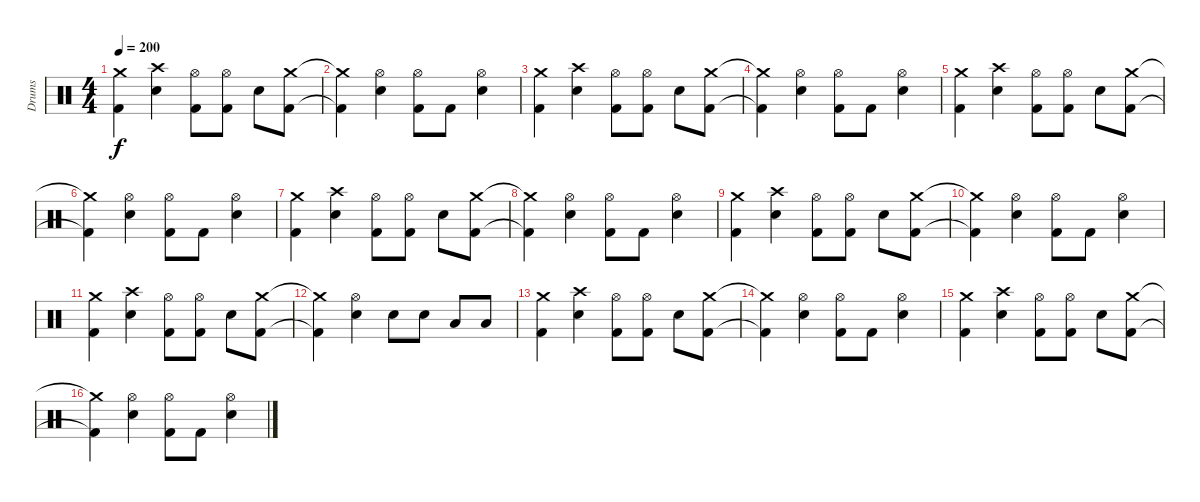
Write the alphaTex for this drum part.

\track ("Drums" "Drums") {instrument percussion}
\staff {score}
\articulation defaults
\ts (4 4)
\tempo 200
\clef neutral
\ks c
("Crash medium (hit)" "Kick (hit) 2").4{dy f} ("Crash high (hit)" "Electric Snare (hit)").4 ("Kick (hit) 2" "Hi-Hat (open)").8 ("Kick (hit) 2" "Hi-Hat (open)").8 "Electric Snare (hit)".8 ("Crash medium (hit)" "Kick (hit) 2").8 |
("Crash medium (hit)"{t} "Kick (hit) 2"{t}).4 ("Hi-Hat (open)" "Electric Snare (hit)").4 ("Kick (hit) 2" "Hi-Hat (open)").8 "Kick (hit) 2".8 ("Electric Snare (hit)" "Hi-Hat (open)").4 |
("Crash medium (hit)" "Kick (hit) 2").4 ("Crash high (hit)" "Electric Snare (hit)").4 ("Kick (hit) 2" "Hi-Hat (open)").8 ("Kick (hit) 2" "Hi-Hat (open)").8 "Electric Snare (hit)".8 ("Crash medium (hit)" "Kick (hit) 2").8 |
("Crash medium (hit)"{t} "Kick (hit) 2"{t}).4 ("Hi-Hat (open)" "Electric Snare (hit)").4 ("Kick (hit) 2" "Hi-Hat (open)").8 "Kick (hit) 2".8 ("Electric Snare (hit)" "Hi-Hat (open)").4 |
("Crash medium (hit)" "Kick (hit) 2").4 ("Crash high (hit)" "Electric Snare (hit)").4 ("Kick (hit) 2" "Hi-Hat (open)").8 ("Kick (hit) 2" "Hi-Hat (open)").8 "Electric Snare (hit)".8 ("Crash medium (hit)" "Kick (hit) 2").8 |
("Crash medium (hit)"{t} "Kick (hit) 2"{t}).4 ("Hi-Hat (open)" "Electric Snare (hit)").4 ("Kick (hit) 2" "Hi-Hat (open)").8 "Kick (hit) 2".8 ("Electric Snare (hit)" "Hi-Hat (open)").4 |
("Crash medium (hit)" "Kick (hit) 2").4 ("Crash high (hit)" "Electric Snare (hit)").4 ("Kick (hit) 2" "Hi-Hat (open)").8 ("Kick (hit) 2" "Hi-Hat (open)").8 "Electric Snare (hit)".8 ("Crash medium (hit)" "Kick (hit) 2").8 |
("Crash medium (hit)"{t} "Kick (hit) 2"{t}).4 ("Hi-Hat (open)" "Electric Snare (hit)").4 ("Kick (hit) 2" "Hi-Hat (open)").8 "Kick (hit) 2".8 ("Electric Snare (hit)" "Hi-Hat (open)").4 |
("Crash medium (hit)" "Kick (hit) 2").4 ("Crash high (hit)" "Electric Snare (hit)").4 ("Kick (hit) 2" "Hi-Hat (open)").8 ("Kick (hit) 2" "Hi-Hat (open)").8 "Electric Snare (hit)".8 ("Crash medium (hit)" "Kick (hit) 2").8 |
("Crash medium (hit)"{t} "Kick (hit) 2"{t}).4 ("Hi-Hat (open)" "Electric Snare (hit)").4 ("Kick (hit) 2" "Hi-Hat (open)").8 "Kick (hit) 2".8 ("Electric Snare (hit)" "Hi-Hat (open)").4 |
("Crash medium (hit)" "Kick (hit) 2").4 ("Crash high (hit)" "Electric Snare (hit)").4 ("Kick (hit) 2" "Hi-Hat (open)").8 ("Kick (hit) 2" "Hi-Hat (open)").8 "Electric Snare (hit)".8 ("Crash medium (hit)" "Kick (hit) 2").8 |
("Crash medium (hit)"{t} "Kick (hit) 2"{t}).4 ("Hi-Hat (open)" "Electric Snare (hit)").4 "Electric Snare (hit)".8 "Electric Snare (hit)".8 "Low Tom (hit)".8 "Low Tom (hit)".8 |
("Crash medium (hit)" "Kick (hit) 2").4 ("Crash high (hit)" "Electric Snare (hit)").4 ("Kick (hit) 2" "Hi-Hat (open)").8 ("Kick (hit) 2" "Hi-Hat (open)").8 "Electric Snare (hit)".8 ("Crash medium (hit)" "Kick (hit) 2").8 |
("Crash medium (hit)"{t} "Kick (hit) 2"{t}).4 ("Hi-Hat (open)" "Electric Snare (hit)").4 ("Kick (hit) 2" "Hi-Hat (open)").8 "Kick (hit) 2".8 ("Electric Snare (hit)" "Hi-Hat (open)").4 |
("Crash medium (hit)" "Kick (hit) 2").4 ("Crash high (hit)" "Electric Snare (hit)").4 ("Kick (hit) 2" "Hi-Hat (open)").8 ("Kick (hit) 2" "Hi-Hat (open)").8 "Electric Snare (hit)".8 ("Crash medium (hit)" "Kick (hit) 2").8 |
("Crash medium (hit)"{t} "Kick (hit) 2"{t}).4 ("Hi-Hat (open)" "Electric Snare (hit)").4 ("Kick (hit) 2" "Hi-Hat (open)").8 "Kick (hit) 2".8 ("Electric Snare (hit)" "Hi-Hat (open)").4
